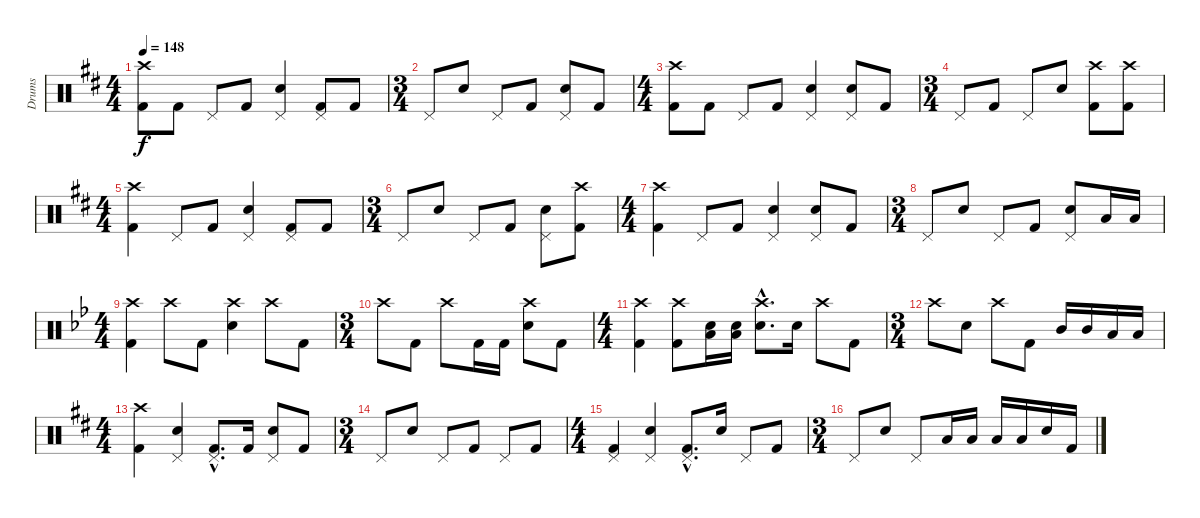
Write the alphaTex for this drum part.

\track ("Drums" "Drums") {instrument percussion}
\staff {score}
\articulation defaults
\ts (4 4)
\tempo 148
\clef neutral
\ks d
("Kick (hit) 2" "Crash high (hit)").8{dy f} "Kick (hit) 2".8 "Pedal Hi-Hat (hit)".8 "Kick (hit) 2".8 ("Electric Snare (hit)" "Pedal Hi-Hat (hit)").4 ("Kick (hit) 2" "Pedal Hi-Hat (hit)").8 "Kick (hit) 2".8 |
\ts (3 4)
"Pedal Hi-Hat (hit)".8 "Electric Snare (hit)".8 "Pedal Hi-Hat (hit)".8 "Kick (hit) 2".8 ("Electric Snare (hit)" "Pedal Hi-Hat (hit)").8 "Kick (hit) 2".8 |
\ts (4 4)
("Kick (hit) 2" "Crash high (hit)").8 "Kick (hit) 2".8 "Pedal Hi-Hat (hit)".8 "Kick (hit) 2".8 ("Electric Snare (hit)" "Pedal Hi-Hat (hit)").4 ("Electric Snare (hit)" "Pedal Hi-Hat (hit)").8 "Kick (hit) 2".8 |
\ts (3 4)
"Pedal Hi-Hat (hit)".8 "Kick (hit) 2".8 "Pedal Hi-Hat (hit)".8 "Electric Snare (hit)".8 ("Kick (hit) 2" "Crash high (hit)").8 ("Kick (hit) 2" "Crash high (hit)").8 |
\ts (4 4)
("Kick (hit) 2" "Crash high (hit)").4 "Pedal Hi-Hat (hit)".8 "Kick (hit) 2".8 ("Electric Snare (hit)" "Pedal Hi-Hat (hit)").4 ("Kick (hit) 2" "Pedal Hi-Hat (hit)").8 "Kick (hit) 2".8 |
\ts (3 4)
"Pedal Hi-Hat (hit)".8 "Electric Snare (hit)".8 "Pedal Hi-Hat (hit)".8 "Kick (hit) 2".8 ("Electric Snare (hit)" "Pedal Hi-Hat (hit)").8 ("Kick (hit) 2" "Crash high (hit)").8 |
\ts (4 4)
("Kick (hit) 2" "Crash high (hit)").4 "Pedal Hi-Hat (hit)".8 "Kick (hit) 2".8 ("Electric Snare (hit)" "Pedal Hi-Hat (hit)").4 ("Electric Snare (hit)" "Pedal Hi-Hat (hit)").8 "Kick (hit) 2".8 |
\ts (3 4)
"Pedal Hi-Hat (hit)".8 "Electric Snare (hit)".8 "Pedal Hi-Hat (hit)".8 "Kick (hit) 2".8 ("Electric Snare (hit)" "Pedal Hi-Hat (hit)").8 "Low Floor Tom (hit)".16 "Low Floor Tom (hit)".16 |
\ts (4 4)
\ks bb
("Kick (hit) 2" "Crash high (hit)").4 "Crash high (hit)".8 "Kick (hit) 2".8 ("Electric Snare (hit)" "Crash high (hit)").4 "Crash high (hit)".8 "Kick (hit) 2".8 |
\ts (3 4)
"Crash high (hit)".8 "Kick (hit) 2".8 "Crash high (hit)".8 "Kick (hit) 2".16 "Kick (hit) 2".16 ("Electric Snare (hit)" "Crash high (hit)").8 "Kick (hit) 2".8 |
\ts (4 4)
("Kick (hit) 2" "Crash high (hit)").4 ("Kick (hit) 2" "Crash high (hit)").8 ("Electric Snare (hit)" "Low Floor Tom (hit)").16 ("Electric Snare (hit)" "Low Floor Tom (hit)").16 ("Electric Snare (hit)"{hac} "Crash high (hit)"{hac}).8{d} "Electric Snare (hit)".16 "Crash high (hit)".8 "Kick (hit) 2".8 |
\ts (3 4)
"Crash high (hit)".8 "Electric Snare (hit)".8 "Crash high (hit)".8 "Kick (hit) 2".8 "Mid Tom (hit)".16 "Mid Tom (hit)".16 "Low Tom (hit)".16 "Low Tom (hit)".16 |
\ts (4 4)
\ks d
("Kick (hit) 2" "Crash high (hit)").4 ("Electric Snare (hit)" "Pedal Hi-Hat (hit)").4 ("Kick (hit) 2"{hac} "Pedal Hi-Hat (hit)"{hac}).8{d} "Kick (hit) 2".16 ("Electric Snare (hit)" "Pedal Hi-Hat (hit)").8 "Kick (hit) 2".8 |
\ts (3 4)
"Pedal Hi-Hat (hit)".8 "Electric Snare (hit)".8 "Pedal Hi-Hat (hit)".8 "Kick (hit) 2".8 "Pedal Hi-Hat (hit)".8 "Kick (hit) 2".8 |
\ts (4 4)
("Kick (hit) 2" "Pedal Hi-Hat (hit)").4 ("Electric Snare (hit)" "Pedal Hi-Hat (hit)").4 ("Kick (hit) 2"{hac} "Pedal Hi-Hat (hit)"{hac}).8{d} "Electric Snare (hit)".16 "Pedal Hi-Hat (hit)".8 "Kick (hit) 2".8 |
\ts (3 4)
"Pedal Hi-Hat (hit)".8 "Electric Snare (hit)".8 "Pedal Hi-Hat (hit)".8 "Low Floor Tom (hit)".16 "Low Floor Tom (hit)".16 "Low Tom (hit)".16 "Low Tom (hit)".16 "Electric Snare (hit)".16 "Kick (hit) 2".16
